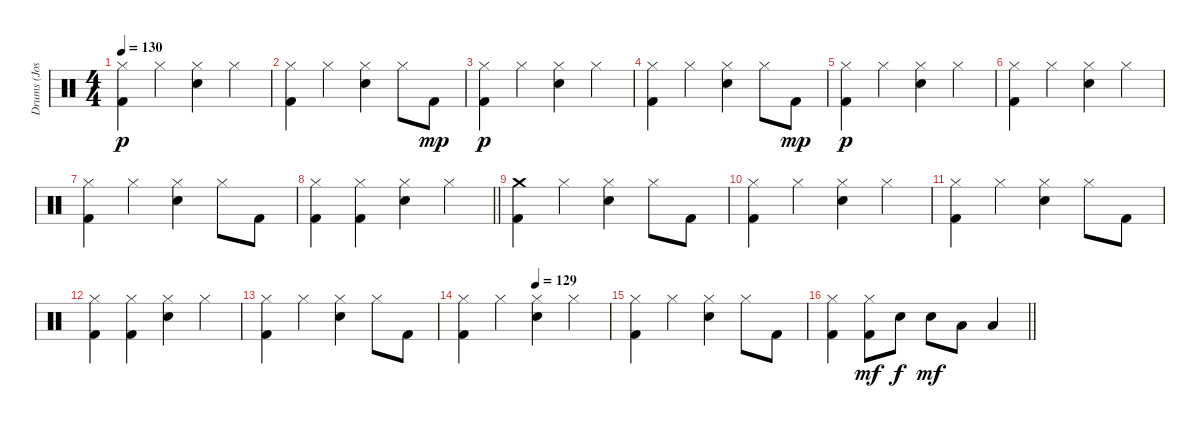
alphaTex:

\track ("Drums (Josh Freese)" "Drums (Jos") {instrument percussion}
\staff {score}
\articulation defaults
\ts (4 4)
\tempo 130
\clef neutral
\ks c
("Hi-Hat (closed)" "Kick (hit) 2").4{dy p} "Hi-Hat (closed)".4 ("Hi-Hat (closed)" "Electric Snare (hit)").4 "Hi-Hat (closed)".4 |
("Hi-Hat (closed)" "Kick (hit) 2").4 "Hi-Hat (closed)".4 ("Hi-Hat (closed)" "Electric Snare (hit)").4 "Hi-Hat (closed)".8 "Kick (hit) 2".8{dy mp} |
("Hi-Hat (closed)" "Kick (hit) 2").4{dy p} "Hi-Hat (closed)".4 ("Hi-Hat (closed)" "Electric Snare (hit)").4 "Hi-Hat (closed)".4 |
("Hi-Hat (closed)" "Kick (hit) 2").4 "Hi-Hat (closed)".4 ("Hi-Hat (closed)" "Electric Snare (hit)").4 "Hi-Hat (closed)".8 "Kick (hit) 2".8{dy mp} |
("Hi-Hat (closed)" "Kick (hit) 2").4{dy p} "Hi-Hat (closed)".4 ("Hi-Hat (closed)" "Electric Snare (hit)").4 "Hi-Hat (closed)".4 |
("Hi-Hat (closed)" "Kick (hit) 2").4 "Hi-Hat (closed)".4 ("Hi-Hat (closed)" "Electric Snare (hit)").4 "Hi-Hat (closed)".4 |
("Hi-Hat (closed)" "Kick (hit) 2").4 "Hi-Hat (closed)".4 ("Hi-Hat (closed)" "Electric Snare (hit)").4 "Hi-Hat (closed)".8 "Kick (hit) 2".8 |
\barLineRight lightlight
("Hi-Hat (closed)" "Kick (hit) 2").4 ("Hi-Hat (closed)" "Kick (hit) 2").4 ("Hi-Hat (closed)" "Electric Snare (hit)").4 "Hi-Hat (closed)".4 |
("Crash medium (hit)" "Kick (hit) 2").4 "Hi-Hat (closed)".4 ("Hi-Hat (closed)" "Electric Snare (hit)").4 "Hi-Hat (closed)".8 "Kick (hit) 2".8 |
("Hi-Hat (closed)" "Kick (hit) 2").4 "Hi-Hat (closed)".4 ("Hi-Hat (closed)" "Electric Snare (hit)").4 "Hi-Hat (closed)".4 |
("Hi-Hat (closed)" "Kick (hit) 2").4 "Hi-Hat (closed)".4 ("Hi-Hat (closed)" "Electric Snare (hit)").4 "Hi-Hat (closed)".8 "Kick (hit) 2".8 |
("Hi-Hat (closed)" "Kick (hit) 2").4 ("Hi-Hat (closed)" "Kick (hit) 2").4 ("Hi-Hat (closed)" "Electric Snare (hit)").4 "Hi-Hat (closed)".4 |
("Hi-Hat (closed)" "Kick (hit) 2").4 "Hi-Hat (closed)".4 ("Hi-Hat (closed)" "Electric Snare (hit)").4 "Hi-Hat (closed)".8 "Kick (hit) 2".8 |
\tempo (129 0.5)
("Hi-Hat (closed)" "Kick (hit) 2").4 "Hi-Hat (closed)".4 ("Hi-Hat (closed)" "Electric Snare (hit)").4 "Hi-Hat (closed)".4 |
("Hi-Hat (closed)" "Kick (hit) 2").4 "Hi-Hat (closed)".4 ("Hi-Hat (closed)" "Electric Snare (hit)").4 "Hi-Hat (closed)".8 "Kick (hit) 2".8 |
\barLineRight lightlight
("Hi-Hat (closed)" "Kick (hit) 2").4 ("Hi-Hat (closed)" "Kick (hit) 2").8{dy mf} "Electric Snare (hit)".8{dy f} "Electric Snare (hit)".8{dy mf} "Low Tom (hit)".8 "Low Tom (hit)".4
